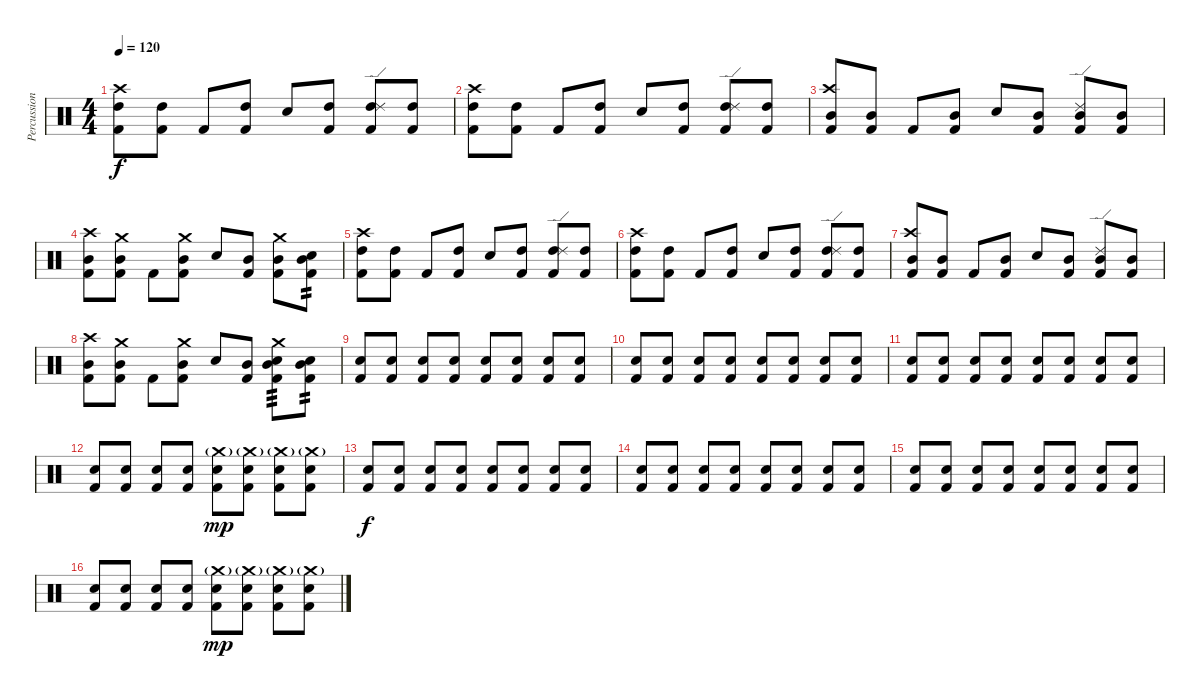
\track ("Percussion" "Percussion") {instrument percussion}
\staff {score}
\articulation defaults
\ts (4 4)
\tempo 120
\clef neutral
\ks c
("Kick (hit) 2" "High Tom (hit)" "Crash high (hit)").8{dy f} ("Kick (hit) 2" "High Tom (hit)").8 "Kick (hit) 2".8 ("Kick (hit) 2" "High Tom (hit)").8 "Electric Snare (hit)".8 ("Kick (hit) 2" "High Tom (hit)").8 ("Kick (hit) 2" "High Tom (hit)" "Ride (edge) 2").8 ("Kick (hit) 2" "High Tom (hit)").8 |
("Kick (hit) 2" "High Tom (hit)" "Crash high (hit)").8 ("Kick (hit) 2" "High Tom (hit)").8 "Kick (hit) 2".8 ("Kick (hit) 2" "High Tom (hit)").8 "Electric Snare (hit)".8 ("Kick (hit) 2" "High Tom (hit)").8 ("Kick (hit) 2" "High Tom (hit)" "Ride (edge) 2").8 ("Kick (hit) 2" "High Tom (hit)").8 |
("Kick (hit) 2" "Mid Tom (hit)" "Crash high (hit)").8 ("Kick (hit) 2" "Mid Tom (hit)").8 "Kick (hit) 2".8 ("Kick (hit) 2" "Mid Tom (hit)").8 "Electric Snare (hit)".8 ("Kick (hit) 2" "Mid Tom (hit)").8 ("Kick (hit) 2" "Mid Tom (hit)" "Ride (edge) 2").8 ("Kick (hit) 2" "Mid Tom (hit)").8 |
("Kick (hit) 2" "Mid Tom (hit)" "Crash high (hit)").8 ("Kick (hit) 2" "Mid Tom (hit)" "Crash medium (hit)").8 "Kick (hit) 2".8 ("Kick (hit) 2" "Mid Tom (hit)" "Crash medium (hit)").8 "Electric Snare (hit)".8 ("Kick (hit) 2" "Mid Tom (hit)").8 ("Kick (hit) 2" "Mid Tom (hit)" "Crash medium (hit)").8 ("Kick (hit) 2" "Electric Snare (hit)" "Mid Tom (hit)").8{tp 2} |
("Kick (hit) 2" "High Tom (hit)" "Crash high (hit)").8 ("Kick (hit) 2" "High Tom (hit)").8 "Kick (hit) 2".8 ("Kick (hit) 2" "High Tom (hit)").8 "Electric Snare (hit)".8 ("Kick (hit) 2" "High Tom (hit)").8 ("Kick (hit) 2" "High Tom (hit)" "Ride (edge) 2").8 ("Kick (hit) 2" "High Tom (hit)").8 |
("Kick (hit) 2" "High Tom (hit)" "Crash high (hit)").8 ("Kick (hit) 2" "High Tom (hit)").8 "Kick (hit) 2".8 ("Kick (hit) 2" "High Tom (hit)").8 "Electric Snare (hit)".8 ("Kick (hit) 2" "High Tom (hit)").8 ("Kick (hit) 2" "High Tom (hit)" "Ride (edge) 2").8 ("Kick (hit) 2" "High Tom (hit)").8 |
("Kick (hit) 2" "Mid Tom (hit)" "Crash high (hit)").8 ("Kick (hit) 2" "Mid Tom (hit)").8 "Kick (hit) 2".8 ("Kick (hit) 2" "Mid Tom (hit)").8 "Electric Snare (hit)".8 ("Kick (hit) 2" "Mid Tom (hit)").8 ("Kick (hit) 2" "Mid Tom (hit)" "Ride (edge) 2").8 ("Kick (hit) 2" "Mid Tom (hit)").8 |
("Kick (hit) 2" "Mid Tom (hit)" "Crash high (hit)").8 ("Kick (hit) 2" "Mid Tom (hit)" "Crash medium (hit)").8 "Kick (hit) 2".8 ("Kick (hit) 2" "Mid Tom (hit)" "Crash medium (hit)").8 "Electric Snare (hit)".8 ("Kick (hit) 2" "Mid Tom (hit)").8 ("Kick (hit) 2" "Electric Snare (hit)" "Mid Tom (hit)" "Crash medium (hit)").8{tp 3} ("Kick (hit) 2" "Electric Snare (hit)" "Mid Tom (hit)").8{tp 2} |
("Kick (hit) 2" "Electric Snare (hit)").8 ("Kick (hit) 2" "Electric Snare (hit)").8 ("Kick (hit) 2" "Electric Snare (hit)").8 ("Kick (hit) 2" "Electric Snare (hit)").8 ("Kick (hit) 2" "Electric Snare (hit)").8 ("Kick (hit) 2" "Electric Snare (hit)").8 ("Kick (hit) 2" "Electric Snare (hit)").8 ("Kick (hit) 2" "Electric Snare (hit)").8 |
("Kick (hit) 2" "Electric Snare (hit)").8 ("Kick (hit) 2" "Electric Snare (hit)").8 ("Kick (hit) 2" "Electric Snare (hit)").8 ("Kick (hit) 2" "Electric Snare (hit)").8 ("Kick (hit) 2" "Electric Snare (hit)").8 ("Kick (hit) 2" "Electric Snare (hit)").8 ("Kick (hit) 2" "Electric Snare (hit)").8 ("Kick (hit) 2" "Electric Snare (hit)").8 |
("Kick (hit) 2" "Electric Snare (hit)").8 ("Kick (hit) 2" "Electric Snare (hit)").8 ("Kick (hit) 2" "Electric Snare (hit)").8 ("Kick (hit) 2" "Electric Snare (hit)").8 ("Kick (hit) 2" "Electric Snare (hit)").8 ("Kick (hit) 2" "Electric Snare (hit)").8 ("Kick (hit) 2" "Electric Snare (hit)").8 ("Kick (hit) 2" "Electric Snare (hit)").8 |
("Kick (hit) 2" "Electric Snare (hit)").8 ("Kick (hit) 2" "Electric Snare (hit)").8 ("Kick (hit) 2" "Electric Snare (hit)").8 ("Kick (hit) 2" "Electric Snare (hit)").8 ("Kick (hit) 2" "Electric Snare (hit)" "Crash medium (hit)"{g}).8{dy mp} ("Kick (hit) 2" "Electric Snare (hit)" "Crash medium (hit)"{g}).8 ("Kick (hit) 2" "Electric Snare (hit)" "Crash medium (hit)"{g}).8 ("Kick (hit) 2" "Electric Snare (hit)" "Crash medium (hit)"{g}).8 |
("Kick (hit) 2" "Electric Snare (hit)").8{dy f} ("Kick (hit) 2" "Electric Snare (hit)").8 ("Kick (hit) 2" "Electric Snare (hit)").8 ("Kick (hit) 2" "Electric Snare (hit)").8 ("Kick (hit) 2" "Electric Snare (hit)").8 ("Kick (hit) 2" "Electric Snare (hit)").8 ("Kick (hit) 2" "Electric Snare (hit)").8 ("Kick (hit) 2" "Electric Snare (hit)").8 |
("Kick (hit) 2" "Electric Snare (hit)").8 ("Kick (hit) 2" "Electric Snare (hit)").8 ("Kick (hit) 2" "Electric Snare (hit)").8 ("Kick (hit) 2" "Electric Snare (hit)").8 ("Kick (hit) 2" "Electric Snare (hit)").8 ("Kick (hit) 2" "Electric Snare (hit)").8 ("Kick (hit) 2" "Electric Snare (hit)").8 ("Kick (hit) 2" "Electric Snare (hit)").8 |
("Kick (hit) 2" "Electric Snare (hit)").8 ("Kick (hit) 2" "Electric Snare (hit)").8 ("Kick (hit) 2" "Electric Snare (hit)").8 ("Kick (hit) 2" "Electric Snare (hit)").8 ("Kick (hit) 2" "Electric Snare (hit)").8 ("Kick (hit) 2" "Electric Snare (hit)").8 ("Kick (hit) 2" "Electric Snare (hit)").8 ("Kick (hit) 2" "Electric Snare (hit)").8 |
("Kick (hit) 2" "Electric Snare (hit)").8 ("Kick (hit) 2" "Electric Snare (hit)").8 ("Kick (hit) 2" "Electric Snare (hit)").8 ("Kick (hit) 2" "Electric Snare (hit)").8 ("Kick (hit) 2" "Electric Snare (hit)" "Crash medium (hit)"{g}).8{dy mp} ("Kick (hit) 2" "Electric Snare (hit)" "Crash medium (hit)"{g}).8 ("Kick (hit) 2" "Electric Snare (hit)" "Crash medium (hit)"{g}).8 ("Kick (hit) 2" "Electric Snare (hit)" "Crash medium (hit)"{g}).8
